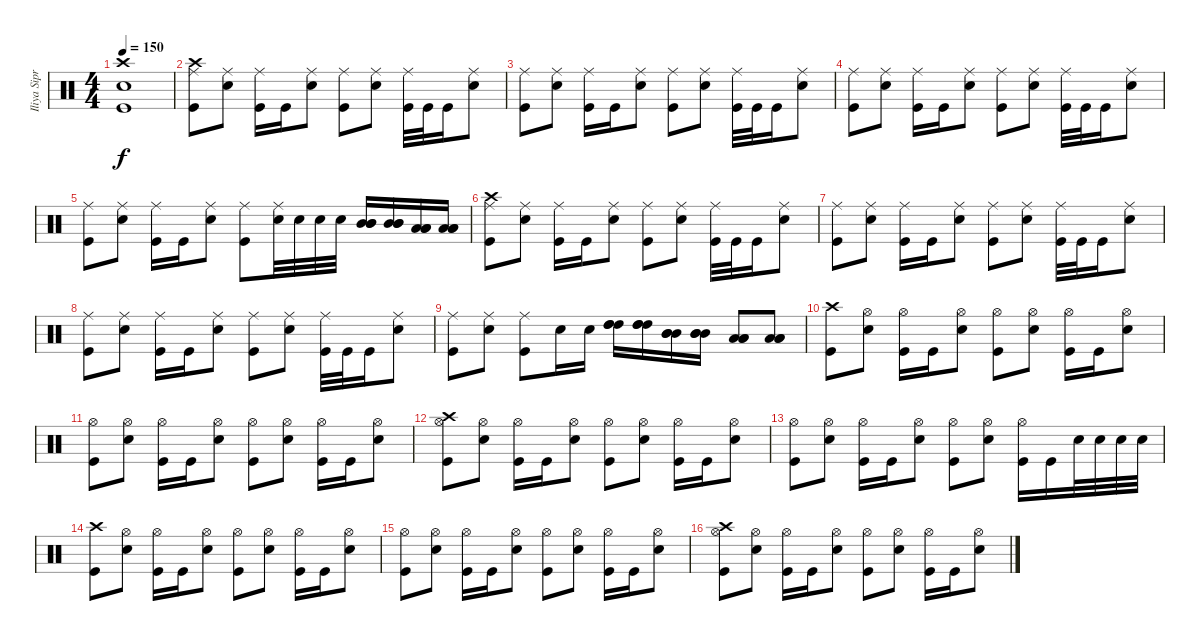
\track ("Iliya Siprov (DRUMS)" "Iliya Sipr") {instrument percussion}
\staff {score}
\articulation defaults
\ts (4 4)
\tempo 150
\clef neutral
\ks c
("Crash high (hit)" "Electric Snare (hit)" "Kick (hit)").1{dy f} |
("Ride (middle)" "Crash high (hit)" "Kick (hit)").8 ("Ride (middle)" "Electric Snare (hit)").8 ("Ride (middle)" "Kick (hit)").16 "Kick (hit)".16 ("Ride (middle)" "Electric Snare (hit)").8 ("Ride (middle)" "Kick (hit)").8 ("Ride (middle)" "Electric Snare (hit)").8 ("Ride (middle)" "Kick (hit)").32 "Kick (hit)".32 "Kick (hit)".16 ("Ride (middle)" "Electric Snare (hit)").8 |
("Ride (middle)" "Kick (hit)").8 ("Ride (middle)" "Electric Snare (hit)").8 ("Ride (middle)" "Kick (hit)").16 "Kick (hit)".16 ("Ride (middle)" "Electric Snare (hit)").8 ("Ride (middle)" "Kick (hit)").8 ("Ride (middle)" "Electric Snare (hit)").8 ("Ride (middle)" "Kick (hit)").32 "Kick (hit)".32 "Kick (hit)".16 ("Ride (middle)" "Electric Snare (hit)").8 |
("Ride (middle)" "Kick (hit)").8 ("Ride (middle)" "Electric Snare (hit)").8 ("Ride (middle)" "Kick (hit)").16 "Kick (hit)".16 ("Ride (middle)" "Electric Snare (hit)").8 ("Ride (middle)" "Kick (hit)").8 ("Ride (middle)" "Electric Snare (hit)").8 ("Ride (middle)" "Kick (hit)").32 "Kick (hit)".32 "Kick (hit)".16 ("Ride (middle)" "Electric Snare (hit)").8 |
("Ride (middle)" "Kick (hit)").8 ("Ride (middle)" "Electric Snare (hit)").8 ("Ride (middle)" "Kick (hit)").16 "Kick (hit)".16 ("Ride (middle)" "Electric Snare (hit)").8 ("Ride (middle)" "Kick (hit)").8 ("Ride (middle)" "Electric Snare (hit)").32 "Electric Snare (hit)".32 "Electric Snare (hit)".32 "Electric Snare (hit)".32 ("Mid Tom (hit)" "Mid Tom (hit)" "Mid Tom (hit)").16 ("Mid Tom (hit)" "Mid Tom (hit)" "Mid Tom (hit)").16 ("Low Floor Tom (hit)" "Low Floor Tom (hit)" "Low Floor Tom (hit)").16 ("Low Floor Tom (hit)" "Low Floor Tom (hit)" "Low Floor Tom (hit)").16 |
("Ride (middle)" "Crash high (hit)" "Kick (hit)").8 ("Ride (middle)" "Electric Snare (hit)").8 ("Ride (middle)" "Kick (hit)").16 "Kick (hit)".16 ("Ride (middle)" "Electric Snare (hit)").8 ("Ride (middle)" "Kick (hit)").8 ("Ride (middle)" "Electric Snare (hit)").8 ("Ride (middle)" "Kick (hit)").32 "Kick (hit)".32 "Kick (hit)".16 ("Ride (middle)" "Electric Snare (hit)").8 |
("Ride (middle)" "Kick (hit)").8 ("Ride (middle)" "Electric Snare (hit)").8 ("Ride (middle)" "Kick (hit)").16 "Kick (hit)".16 ("Ride (middle)" "Electric Snare (hit)").8 ("Ride (middle)" "Kick (hit)").8 ("Ride (middle)" "Electric Snare (hit)").8 ("Ride (middle)" "Kick (hit)").32 "Kick (hit)".32 "Kick (hit)".16 ("Ride (middle)" "Electric Snare (hit)").8 |
("Ride (middle)" "Kick (hit)").8 ("Ride (middle)" "Electric Snare (hit)").8 ("Ride (middle)" "Kick (hit)").16 "Kick (hit)".16 ("Ride (middle)" "Electric Snare (hit)").8 ("Ride (middle)" "Kick (hit)").8 ("Ride (middle)" "Electric Snare (hit)").8 ("Ride (middle)" "Kick (hit)").32 "Kick (hit)".32 "Kick (hit)".16 ("Ride (middle)" "Electric Snare (hit)").8 |
("Ride (middle)" "Kick (hit)").8 ("Ride (middle)" "Electric Snare (hit)").8 ("Ride (middle)" "Kick (hit)").8 "Electric Snare (hit)".16 "Electric Snare (hit)".16 ("High Tom (hit)" "High Tom (hit)" "High Tom (hit)").16 ("High Tom (hit)" "High Tom (hit)" "High Tom (hit)").16 ("Mid Tom (hit)" "Mid Tom (hit)" "Mid Tom (hit)").16 ("Mid Tom (hit)" "Mid Tom (hit)" "Mid Tom (hit)").16 ("Low Floor Tom (hit)" "Low Floor Tom (hit)" "Low Floor Tom (hit)").8 ("Low Floor Tom (hit)" "Low Floor Tom (hit)" "Low Floor Tom (hit)").8 |
("Crash high (hit)" "Kick (hit)").8 ("Hi-Hat (open)" "Electric Snare (hit)").8 ("Hi-Hat (open)" "Kick (hit)").16 "Kick (hit)".16 ("Hi-Hat (open)" "Electric Snare (hit)").8 ("Hi-Hat (open)" "Kick (hit)").8 ("Hi-Hat (open)" "Electric Snare (hit)").8 ("Hi-Hat (open)" "Kick (hit)").16 "Kick (hit)".16 ("Hi-Hat (open)" "Electric Snare (hit)").8 |
("Hi-Hat (open)" "Kick (hit)").8 ("Hi-Hat (open)" "Electric Snare (hit)").8 ("Hi-Hat (open)" "Kick (hit)").16 "Kick (hit)".16 ("Hi-Hat (open)" "Electric Snare (hit)").8 ("Hi-Hat (open)" "Kick (hit)").8 ("Hi-Hat (open)" "Electric Snare (hit)").8 ("Hi-Hat (open)" "Kick (hit)").16 "Kick (hit)".16 ("Hi-Hat (open)" "Electric Snare (hit)").8 |
("Hi-Hat (open)" "Crash high (hit)" "Kick (hit)").8 ("Hi-Hat (open)" "Electric Snare (hit)").8 ("Hi-Hat (open)" "Kick (hit)").16 "Kick (hit)".16 ("Hi-Hat (open)" "Electric Snare (hit)").8 ("Hi-Hat (open)" "Kick (hit)").8 ("Hi-Hat (open)" "Electric Snare (hit)").8 ("Hi-Hat (open)" "Kick (hit)").16 "Kick (hit)".16 ("Hi-Hat (open)" "Electric Snare (hit)").8 |
("Hi-Hat (open)" "Kick (hit)").8 ("Hi-Hat (open)" "Electric Snare (hit)").8 ("Hi-Hat (open)" "Kick (hit)").16 "Kick (hit)".16 ("Hi-Hat (open)" "Electric Snare (hit)").8 ("Hi-Hat (open)" "Kick (hit)").8 ("Hi-Hat (open)" "Electric Snare (hit)").8 ("Hi-Hat (open)" "Kick (hit)").16 "Kick (hit)".16 "Electric Snare (hit)".32 "Electric Snare (hit)".32 "Electric Snare (hit)".32 "Electric Snare (hit)".32 |
("Crash high (hit)" "Kick (hit)").8 ("Hi-Hat (open)" "Electric Snare (hit)").8 ("Hi-Hat (open)" "Kick (hit)").16 "Kick (hit)".16 ("Hi-Hat (open)" "Electric Snare (hit)").8 ("Hi-Hat (open)" "Kick (hit)").8 ("Hi-Hat (open)" "Electric Snare (hit)").8 ("Hi-Hat (open)" "Kick (hit)").16 "Kick (hit)".16 ("Hi-Hat (open)" "Electric Snare (hit)").8 |
("Hi-Hat (open)" "Kick (hit)").8 ("Hi-Hat (open)" "Electric Snare (hit)").8 ("Hi-Hat (open)" "Kick (hit)").16 "Kick (hit)".16 ("Hi-Hat (open)" "Electric Snare (hit)").8 ("Hi-Hat (open)" "Kick (hit)").8 ("Hi-Hat (open)" "Electric Snare (hit)").8 ("Hi-Hat (open)" "Kick (hit)").16 "Kick (hit)".16 ("Hi-Hat (open)" "Electric Snare (hit)").8 |
("Hi-Hat (open)" "Crash high (hit)" "Kick (hit)").8 ("Hi-Hat (open)" "Electric Snare (hit)").8 ("Hi-Hat (open)" "Kick (hit)").16 "Kick (hit)".16 ("Hi-Hat (open)" "Electric Snare (hit)").8 ("Hi-Hat (open)" "Kick (hit)").8 ("Hi-Hat (open)" "Electric Snare (hit)").8 ("Hi-Hat (open)" "Kick (hit)").16 "Kick (hit)".16 ("Hi-Hat (open)" "Electric Snare (hit)").8
